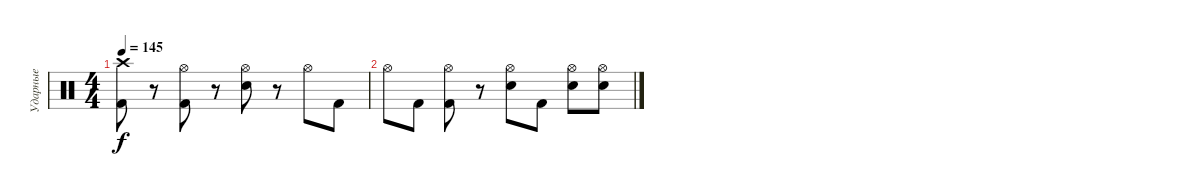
\track ("Ударные" "Ударные") {instrument percussion}
\staff {score}
\articulation defaults
\ts (4 4)
\tempo 145
\clef neutral
\ks c
("Crash high (hit)" "Kick (hit) 2").8{dy f} r.8 ("Hi-Hat (open)" "Kick (hit) 2").8 r.8 ("Hi-Hat (open)" "Snare (hit) 2").8 r.8 "Hi-Hat (open)".8 "Kick (hit) 2".8 |
"Hi-Hat (open)".8 "Kick (hit) 2".8 ("Hi-Hat (open)" "Kick (hit) 2").8 r.8 ("Hi-Hat (open)" "Snare (hit) 2").8 "Kick (hit) 2".8 ("Hi-Hat (open)" "Snare (hit) 2").8 ("Hi-Hat (open)" "Snare (hit) 2").8
